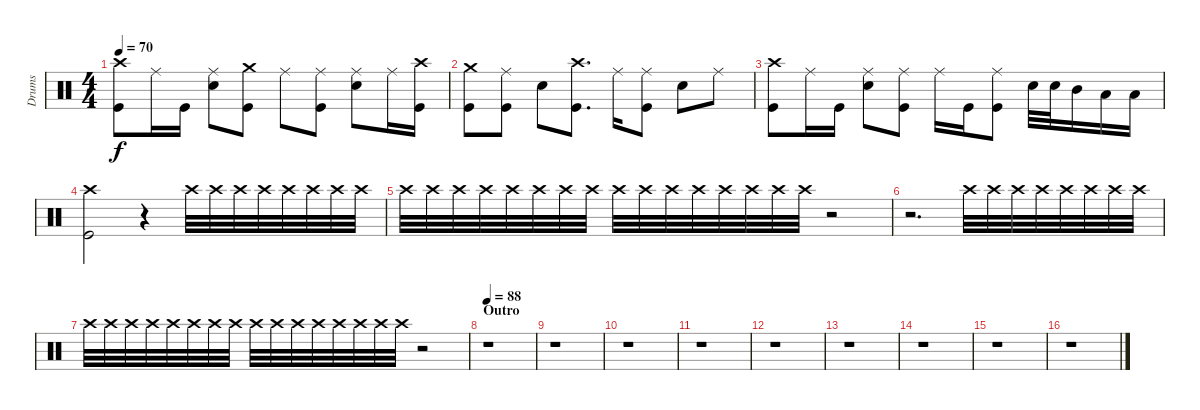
\track ("Drums" "Drums") {instrument percussion}
\staff {score}
\articulation defaults
\ts (4 4)
\tempo 70
\clef neutral
\ks c
("Crash high (hit)" "Kick (hit)").8{dy f} "Ride (middle)".16 "Kick (hit)".16 ("Ride (middle)" "Snare (hit) 2").8 ("Crash medium (hit)" "Kick (hit)").8 "Ride (middle)".8 ("Ride (middle)" "Kick (hit)").8 ("Ride (middle)" "Snare (hit) 2").8 "Ride (middle)".16 ("Crash high (hit)" "Kick (hit)").16 |
("Crash medium (hit)" "Kick (hit)").8 ("Ride (middle)" "Kick (hit)").8 "Snare (hit) 2".8 ("Crash high (hit)" "Kick (hit)").8{d} "Ride (middle)".16 ("Ride (middle)" "Kick (hit)").8 "Snare (hit) 2".8 "Ride (middle)".8 |
("Crash high (hit)" "Kick (hit)").8 "Ride (middle)".16 "Kick (hit)".16 ("Ride (middle)" "Snare (hit) 2").8 ("Ride (middle)" "Kick (hit)").8 "Ride (middle)".16 "Kick (hit)".16 ("Ride (middle)" "Kick (hit)").8 "Snare (hit) 2".32 "Snare (hit) 2".32 "Mid Tom (hit)".16 "Low Tom (hit)".16 "Low Tom (hit)".16 |
("Crash high (hit)" "Kick (hit)").2 r.4{volume 0} "Crash high (hit)".32{volume 12} "Crash high (hit)".32 "Crash high (hit)".32 "Crash high (hit)".32 "Crash high (hit)".32 "Crash high (hit)".32 "Crash high (hit)".32 "Crash high (hit)".32 |
"Crash high (hit)".32 "Crash high (hit)".32 "Crash high (hit)".32 "Crash high (hit)".32 "Crash high (hit)".32 "Crash high (hit)".32 "Crash high (hit)".32 "Crash high (hit)".32 "Crash high (hit)".32 "Crash high (hit)".32 "Crash high (hit)".32 "Crash high (hit)".32 "Crash high (hit)".32 "Crash high (hit)".32 "Crash high (hit)".32 "Crash high (hit)".32 r.2 |
r.2{d volume 0} "Crash high (hit)".32{volume 12} "Crash high (hit)".32 "Crash high (hit)".32 "Crash high (hit)".32 "Crash high (hit)".32 "Crash high (hit)".32 "Crash high (hit)".32 "Crash high (hit)".32 |
"Crash high (hit)".32 "Crash high (hit)".32 "Crash high (hit)".32 "Crash high (hit)".32 "Crash high (hit)".32 "Crash high (hit)".32 "Crash high (hit)".32 "Crash high (hit)".32 "Crash high (hit)".32 "Crash high (hit)".32 "Crash high (hit)".32 "Crash high (hit)".32 "Crash high (hit)".32 "Crash high (hit)".32 "Crash high (hit)".32 "Crash high (hit)".32 r.2 |
\section ("" "Outro")
\tempo 88
r.1 |
r.1 |
r.1 |
r.1 |
r.1 |
r.1 |
r.1 |
r.1 |
r.1
